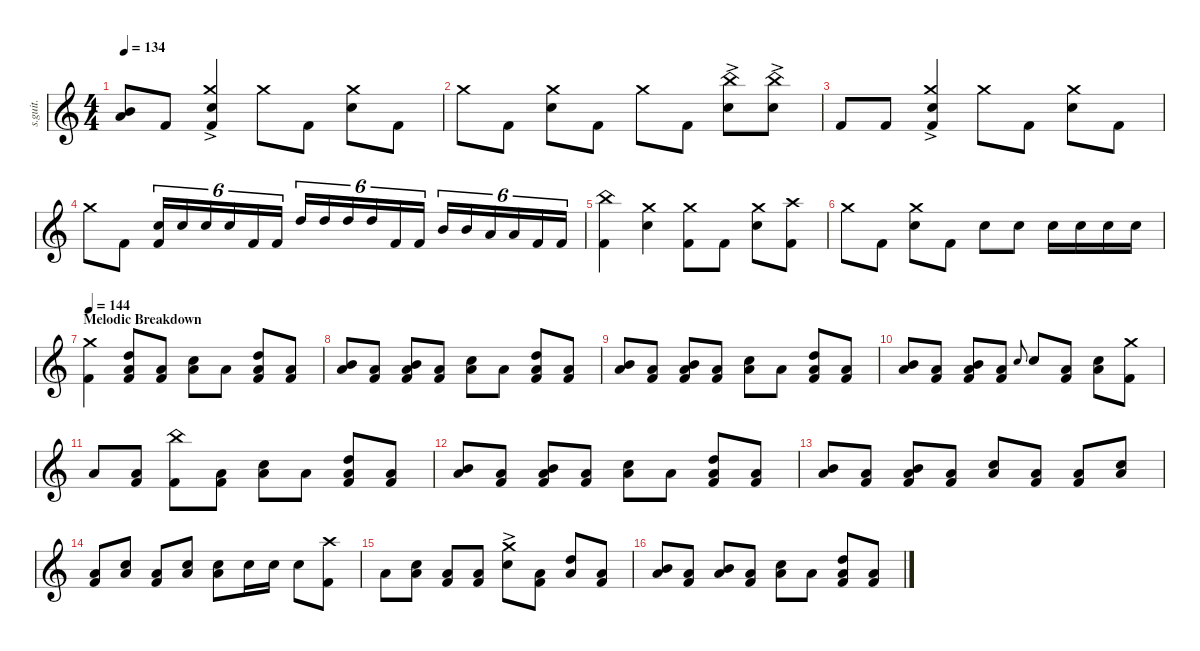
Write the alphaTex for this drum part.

\defaultSystemsLayout 4
\hideDynamics
\bracketExtendMode nobrackets
\track ("Joey Jordison RIP" "s.guit.") {instrument percussion}
\staff {score}
\articulation defaults
\ts (4 4)
\tempo 134
\clef g2
\ks c
("Mid Tom (hit)" "Low Floor Tom (hit)").8{dy fff} "Kick (hit) 2".8 ("Crash medium (hit)"{ac} "Kick (hit) 2"{ac} "Snare (hit) 2"{ac}).4 "Crash medium (hit)".8 "Kick (hit) 2".8 ("Crash medium (hit)" "Snare (hit) 2").8 "Kick (hit) 2".8 |
"Crash medium (hit)".8 "Kick (hit) 2".8 ("Crash medium (hit)" "Snare (hit) 2").8 "Kick (hit) 2".8 "Crash medium (hit)".8 "Kick (hit) 2".8 ("China (hit)"{ac} "Snare (hit) 2"{ac}).8 ("China (hit)"{ac} "Snare (hit) 2"{ac}).8 |
"Kick (hit) 2".8 "Kick (hit) 2".8 ("Crash medium (hit)"{ac} "Kick (hit) 2"{ac} "Snare (hit) 2"{ac}).4 "Crash medium (hit)".8 "Kick (hit) 2".8 ("Crash medium (hit)" "Snare (hit) 2").8 "Kick (hit) 2".8 |
"Crash medium (hit)".8 "Kick (hit) 2".8 ("Kick (hit) 2" "Snare (hit) 2").16{tu (6 4)} "Snare (hit) 2".16{tu (6 4)} "Snare (hit) 2".16{tu (6 4)} "Snare (hit) 2".16{tu (6 4)} "Kick (hit) 2".16{tu (6 4)} "Kick (hit) 2".16{tu (6 4)} "High Tom (hit)".16{tu (6 4)} "High Tom (hit)".16{tu (6 4)} "High Tom (hit)".16{tu (6 4)} "High Tom (hit)".16{tu (6 4)} "Kick (hit) 2".16{tu (6 4)} "Kick (hit) 2".16{tu (6 4)} "Mid Tom (hit)".16{tu (6 4)} "Mid Tom (hit)".16{tu (6 4)} "Low Floor Tom (hit)".16{tu (6 4)} "Low Floor Tom (hit)".16{tu (6 4)} "Kick (hit) 2".16{tu (6 4)} "Kick (hit) 2".16{tu (6 4)} |
("China (hit)" "Kick (hit) 2").4 ("Crash medium (hit)" "Snare (hit) 2").4 ("Crash medium (hit)" "Kick (hit) 2").8 "Kick (hit) 2".8 ("Crash medium (hit)" "Snare (hit) 2").8 ("Crash high (hit)" "Kick (hit) 2").8 |
"Crash medium (hit)".8 "Kick (hit) 2".8 ("Crash medium (hit)" "Snare (hit) 2").8 "Kick (hit) 2".8 "Snare (hit) 2".8 "Snare (hit) 2".8 "Snare (hit) 2".16 "Snare (hit) 2".16 "Snare (hit) 2".16 "Snare (hit) 2".16 |
\section ("" "Melodic Breakdown")
\tempo 144
("Kick (hit) 2" "Crash medium (hit)").4 ("High Tom (hit)" "Kick (hit) 2" "Low Floor Tom (hit)").8 ("Kick (hit) 2" "Low Floor Tom (hit)").8 ("Low Floor Tom (hit)" "Snare (hit) 2").8 "Low Floor Tom (hit)".8 ("Kick (hit) 2" "Low Floor Tom (hit)" "High Tom (hit)").8 ("Kick (hit) 2" "Low Floor Tom (hit)").8 |
("Low Floor Tom (hit)" "Mid Tom (hit)").8 ("Kick (hit) 2" "Low Floor Tom (hit)").8 ("Kick (hit) 2" "Low Floor Tom (hit)" "Mid Tom (hit)").8 ("Kick (hit) 2" "Low Floor Tom (hit)").8 ("Low Floor Tom (hit)" "Snare (hit) 2").8 "Low Floor Tom (hit)".8 ("Kick (hit) 2" "Low Floor Tom (hit)" "High Tom (hit)").8 ("Kick (hit) 2" "Low Floor Tom (hit)").8 |
("Low Floor Tom (hit)" "Mid Tom (hit)").8 ("Kick (hit) 2" "Low Floor Tom (hit)").8 ("Kick (hit) 2" "Low Floor Tom (hit)" "Mid Tom (hit)").8 ("Kick (hit) 2" "Low Floor Tom (hit)").8 ("Low Floor Tom (hit)" "Snare (hit) 2").8 "Low Floor Tom (hit)".8 ("High Tom (hit)" "Kick (hit) 2" "Low Floor Tom (hit)").8 ("Kick (hit) 2" "Low Floor Tom (hit)").8 |
("Mid Tom (hit)" "Low Floor Tom (hit)").8 ("Kick (hit) 2" "Low Floor Tom (hit)").8 ("Kick (hit) 2" "Low Floor Tom (hit)" "Mid Tom (hit)").8 ("Kick (hit) 2" "Low Floor Tom (hit)").8 "Snare (hit) 2".8{gr onbeat} "Snare (hit) 2".8 ("Kick (hit) 2" "Low Floor Tom (hit)").8 ("Low Floor Tom (hit)" "Snare (hit) 2").8 ("Kick (hit) 2" "Crash medium (hit)").8 |
"Low Floor Tom (hit)".8 ("Kick (hit) 2" "Low Floor Tom (hit)").8 ("China (hit)" "Kick (hit) 2").8 ("Kick (hit) 2" "Low Floor Tom (hit)").8 ("Low Floor Tom (hit)" "Snare (hit) 2").8 "Low Floor Tom (hit)".8 ("Kick (hit) 2" "Low Floor Tom (hit)" "High Tom (hit)").8 ("Kick (hit) 2" "Low Floor Tom (hit)").8 |
("Mid Tom (hit)" "Low Floor Tom (hit)").8 ("Kick (hit) 2" "Low Floor Tom (hit)").8 ("Kick (hit) 2" "Low Floor Tom (hit)" "Mid Tom (hit)").8 ("Kick (hit) 2" "Low Floor Tom (hit)").8 ("Low Floor Tom (hit)" "Snare (hit) 2").8 "Low Floor Tom (hit)".8 ("High Tom (hit)" "Kick (hit) 2" "Low Floor Tom (hit)").8 ("Kick (hit) 2" "Low Floor Tom (hit)").8 |
("Mid Tom (hit)" "Low Floor Tom (hit)").8 ("Kick (hit) 2" "Low Floor Tom (hit)").8 ("Kick (hit) 2" "Low Floor Tom (hit)" "Mid Tom (hit)").8 ("Kick (hit) 2" "Low Floor Tom (hit)").8 ("Low Floor Tom (hit)" "Snare (hit) 2").8 ("Low Floor Tom (hit)" "Kick (hit) 2").8 ("Kick (hit) 2" "Low Floor Tom (hit)").8 ("Low Floor Tom (hit)" "Snare (hit) 2").8 |
("Kick (hit) 2" "Low Floor Tom (hit)").8 ("Low Floor Tom (hit)" "Snare (hit) 2").8 ("Low Floor Tom (hit)" "Kick (hit) 2").8 ("Low Floor Tom (hit)" "Snare (hit) 2").8 ("Low Floor Tom (hit)" "Snare (hit) 2").8 "Snare (hit) 2".16 "Snare (hit) 2".16 "Snare (hit) 2".8 ("Kick (hit) 2" "Crash high (hit)").8 |
"Low Floor Tom (hit)".8 ("Low Floor Tom (hit)" "Snare (hit) 2").8 ("Kick (hit) 2" "Low Floor Tom (hit)").8 ("Kick (hit) 2" "Low Floor Tom (hit)").8 ("Crash medium (hit)"{ac} "Snare (hit) 2"{ac}).8 ("Kick (hit) 2" "Low Floor Tom (hit)").8 ("High Tom (hit)" "Low Floor Tom (hit)").8 ("Kick (hit) 2" "Low Floor Tom (hit)").8 |
("Mid Tom (hit)" "Low Floor Tom (hit)").8 ("Kick (hit) 2" "Low Floor Tom (hit)").8 ("Low Floor Tom (hit)" "Mid Tom (hit)").8 ("Kick (hit) 2" "Low Floor Tom (hit)").8 ("Low Floor Tom (hit)" "Snare (hit) 2").8 "Low Floor Tom (hit)".8 ("High Tom (hit)" "Kick (hit) 2" "Low Floor Tom (hit)").8 ("Kick (hit) 2" "Low Floor Tom (hit)").8
